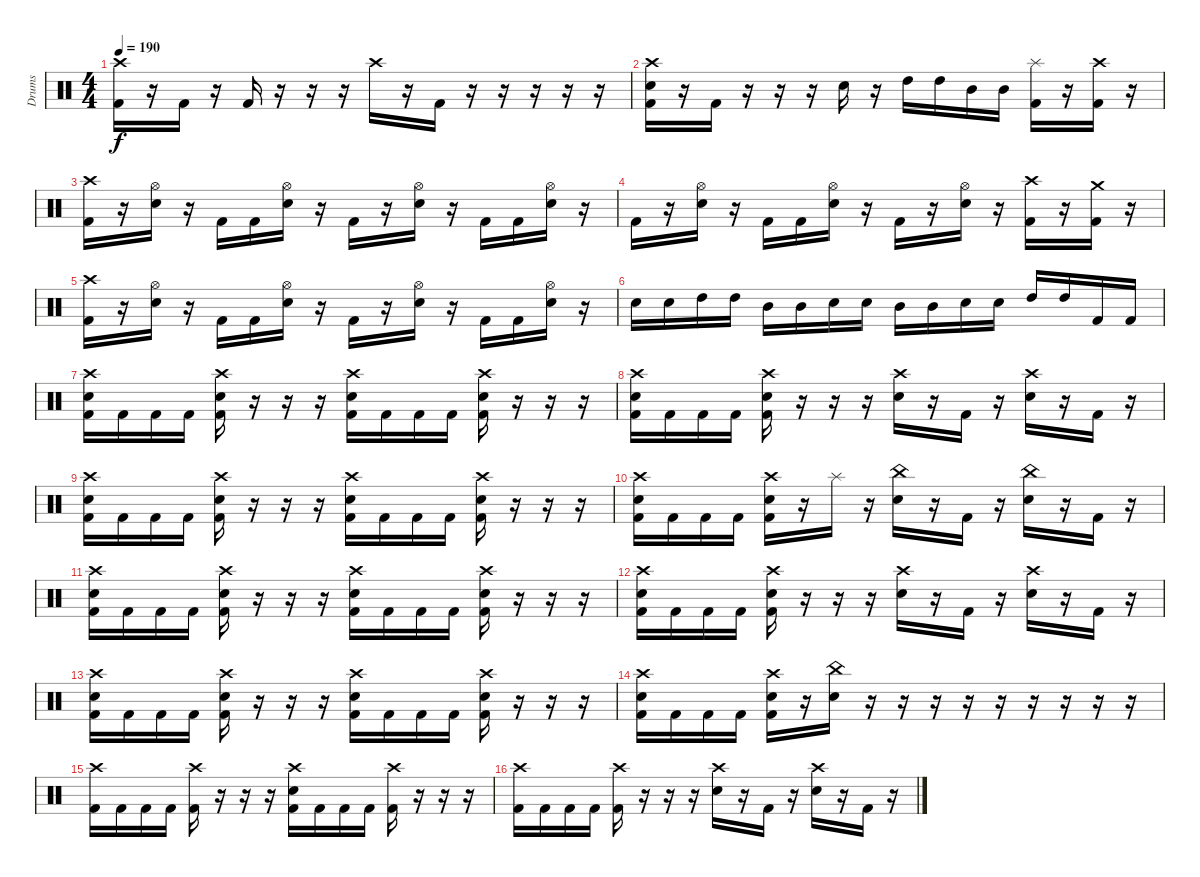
\track ("Drums" "Drums") {instrument percussion}
\staff {score}
\articulation defaults
\ts (4 4)
\tempo 190
\clef neutral
\ks c
("Crash high (hit)" "Kick (hit) 2").16{dy f} r.16 "Kick (hit) 2".16 r.16 "Kick (hit) 2".16 r.16 r.16 r.16 "Crash high (hit)".16 r.16 "Kick (hit) 2".16 r.16 r.16 r.16 r.16 r.16 |
("Crash high (hit)" "Electric Snare (hit)" "Kick (hit) 2").16 r.16 "Kick (hit) 2".16 r.16 r.16 r.16 "Electric Snare (hit)".16 r.16 "High Tom (hit)".16 "High Tom (hit)".16 "Mid Tom (hit)".16 "Mid Tom (hit)".16 ("Splash (hit)" "Kick (hit) 2").16 r.16 ("Crash high (hit)" "Kick (hit) 2").16 r.16 |
("Crash high (hit)" "Kick (hit) 2").16 r.16 ("Hi-Hat (open)" "Electric Snare (hit)").16 r.16 "Kick (hit) 2".16 "Kick (hit) 2".16 ("Hi-Hat (open)" "Electric Snare (hit)").16 r.16 "Kick (hit) 2".16 r.16 ("Hi-Hat (open)" "Electric Snare (hit)").16 r.16 "Kick (hit) 2".16 "Kick (hit) 2".16 ("Hi-Hat (open)" "Electric Snare (hit)").16 r.16 |
"Kick (hit) 2".16 r.16 ("Hi-Hat (open)" "Electric Snare (hit)").16 r.16 "Kick (hit) 2".16 "Kick (hit) 2".16 ("Hi-Hat (open)" "Electric Snare (hit)").16 r.16 "Kick (hit) 2".16 r.16 ("Hi-Hat (open)" "Electric Snare (hit)").16 r.16 ("Crash high (hit)" "Kick (hit) 2").16 r.16 ("Crash medium (hit)" "Kick (hit) 2").16 r.16 |
("Crash high (hit)" "Kick (hit) 2").16 r.16 ("Hi-Hat (open)" "Electric Snare (hit)").16 r.16 "Kick (hit) 2".16 "Kick (hit) 2".16 ("Hi-Hat (open)" "Electric Snare (hit)").16 r.16 "Kick (hit) 2".16 r.16 ("Hi-Hat (open)" "Electric Snare (hit)").16 r.16 "Kick (hit) 2".16 "Kick (hit) 2".16 ("Hi-Hat (open)" "Electric Snare (hit)").16 r.16 |
"Electric Snare (hit)".16 "Electric Snare (hit)".16 "High Tom (hit)".16 "High Tom (hit)".16 "Mid Tom (hit)".16 "Mid Tom (hit)".16 "Electric Snare (hit)".16 "Electric Snare (hit)".16 "Mid Tom (hit)".16 "Mid Tom (hit)".16 "Electric Snare (hit)".16 "Electric Snare (hit)".16 "High Tom (hit)".16 "High Tom (hit)".16 "Kick (hit) 2".16 "Kick (hit) 2".16 |
("Crash high (hit)" "Electric Snare (hit)" "Kick (hit) 2").16 "Kick (hit) 2".16 "Kick (hit) 2".16 "Kick (hit) 2".16 ("Crash high (hit)" "Electric Snare (hit)" "Kick (hit) 2").16 r.16 r.16 r.16 ("Crash high (hit)" "Electric Snare (hit)" "Kick (hit) 2").16 "Kick (hit) 2".16 "Kick (hit) 2".16 "Kick (hit) 2".16 ("Crash high (hit)" "Electric Snare (hit)" "Kick (hit) 2").16 r.16 r.16 r.16 |
("Crash high (hit)" "Electric Snare (hit)" "Kick (hit) 2").16 "Kick (hit) 2".16 "Kick (hit) 2".16 "Kick (hit) 2".16 ("Crash high (hit)" "Electric Snare (hit)" "Kick (hit) 2").16 r.16 r.16 r.16 ("Crash high (hit)" "Electric Snare (hit)").16 r.16 "Kick (hit) 2".16 r.16 ("Crash high (hit)" "Electric Snare (hit)").16 r.16 "Kick (hit) 2".16 r.16 |
("Crash high (hit)" "Electric Snare (hit)" "Kick (hit) 2").16 "Kick (hit) 2".16 "Kick (hit) 2".16 "Kick (hit) 2".16 ("Crash high (hit)" "Electric Snare (hit)" "Kick (hit) 2").16 r.16 r.16 r.16 ("Crash high (hit)" "Electric Snare (hit)" "Kick (hit) 2").16 "Kick (hit) 2".16 "Kick (hit) 2".16 "Kick (hit) 2".16 ("Crash high (hit)" "Electric Snare (hit)" "Kick (hit) 2").16 r.16 r.16 r.16 |
("Crash high (hit)" "Electric Snare (hit)" "Kick (hit) 2").16 "Kick (hit) 2".16 "Kick (hit) 2".16 "Kick (hit) 2".16 ("Crash high (hit)" "Electric Snare (hit)" "Kick (hit) 2").16 r.16 "Splash (hit)".16 r.16 ("China (hit)" "Electric Snare (hit)").16 r.16 "Kick (hit) 2".16 r.16 ("China (hit)" "Electric Snare (hit)").16 r.16 "Kick (hit) 2".16 r.16 |
("Crash high (hit)" "Electric Snare (hit)" "Kick (hit) 2").16 "Kick (hit) 2".16 "Kick (hit) 2".16 "Kick (hit) 2".16 ("Crash high (hit)" "Electric Snare (hit)" "Kick (hit) 2").16 r.16 r.16 r.16 ("Crash high (hit)" "Electric Snare (hit)" "Kick (hit) 2").16 "Kick (hit) 2".16 "Kick (hit) 2".16 "Kick (hit) 2".16 ("Crash high (hit)" "Electric Snare (hit)" "Kick (hit) 2").16 r.16 r.16 r.16 |
("Crash high (hit)" "Electric Snare (hit)" "Kick (hit) 2").16 "Kick (hit) 2".16 "Kick (hit) 2".16 "Kick (hit) 2".16 ("Crash high (hit)" "Electric Snare (hit)" "Kick (hit) 2").16 r.16 r.16 r.16 ("Crash high (hit)" "Electric Snare (hit)").16 r.16 "Kick (hit) 2".16 r.16 ("Crash high (hit)" "Electric Snare (hit)").16 r.16 "Kick (hit) 2".16 r.16 |
("Crash high (hit)" "Electric Snare (hit)" "Kick (hit) 2").16 "Kick (hit) 2".16 "Kick (hit) 2".16 "Kick (hit) 2".16 ("Crash high (hit)" "Electric Snare (hit)" "Kick (hit) 2").16 r.16 r.16 r.16 ("Crash high (hit)" "Electric Snare (hit)" "Kick (hit) 2").16 "Kick (hit) 2".16 "Kick (hit) 2".16 "Kick (hit) 2".16 ("Crash high (hit)" "Electric Snare (hit)" "Kick (hit) 2").16 r.16 r.16 r.16 |
("Crash high (hit)" "Electric Snare (hit)" "Kick (hit) 2").16 "Kick (hit) 2".16 "Kick (hit) 2".16 "Kick (hit) 2".16 ("Crash high (hit)" "Electric Snare (hit)" "Kick (hit) 2").16 r.16 ("China (hit)" "Electric Snare (hit)").16 r.16 r.16 r.16 r.16 r.16 r.16 r.16 r.16 r.16 |
("Crash high (hit)" "Kick (hit) 2").16 "Kick (hit) 2".16 "Kick (hit) 2".16 "Kick (hit) 2".16 ("Crash high (hit)" "Kick (hit) 2").16 r.16 r.16 r.16 ("Crash high (hit)" "Electric Snare (hit)" "Kick (hit) 2").16 "Kick (hit) 2".16 "Kick (hit) 2".16 "Kick (hit) 2".16 ("Crash high (hit)" "Kick (hit) 2").16 r.16 r.16 r.16 |
("Crash high (hit)" "Kick (hit) 2").16 "Kick (hit) 2".16 "Kick (hit) 2".16 "Kick (hit) 2".16 ("Crash high (hit)" "Kick (hit) 2").16 r.16 r.16 r.16 ("Crash high (hit)" "Electric Snare (hit)").16 r.16 "Kick (hit) 2".16 r.16 ("Crash high (hit)" "Electric Snare (hit)").16 r.16 "Kick (hit) 2".16 r.16
